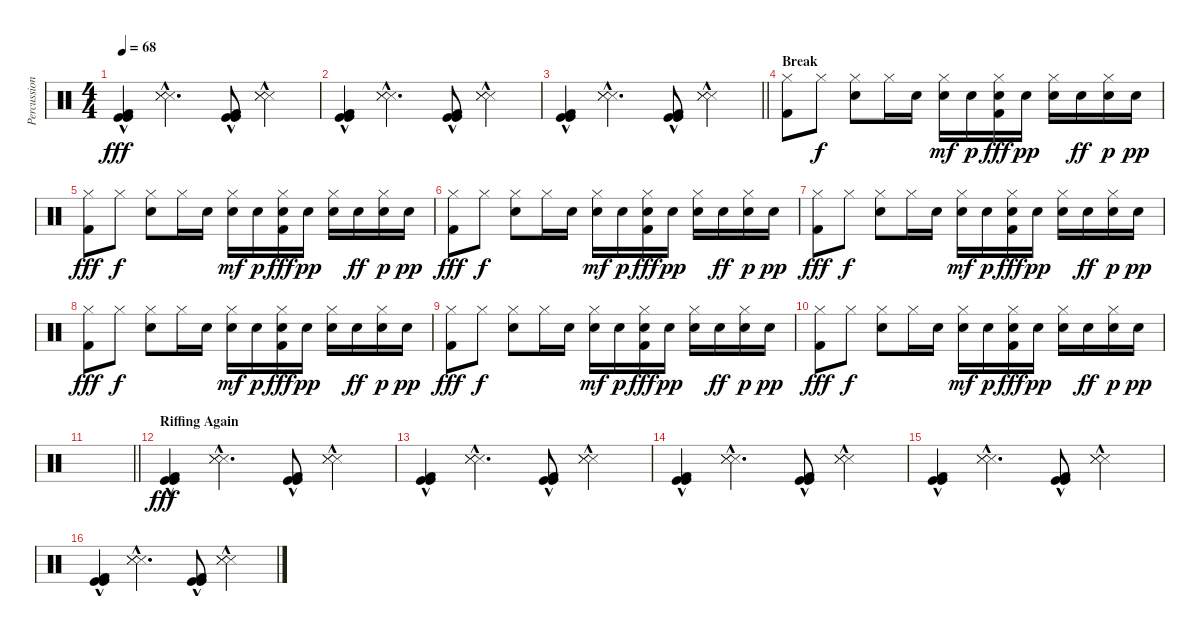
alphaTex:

\track ("Percussion (Drums)" "Percussion") {instrument percussion}
\staff {score}
\articulation defaults
\ts (4 4)
\tempo 68
\clef neutral
\ks c
("Kick (hit)"{hac} "Kick (hit) 2"{hac} "Kick (hit)"{hac}).4{dy fff} ("Snare (side stick) 3"{hac} "Snare (side stick) 3"{hac} "Snare (side stick) 3"{hac}).4{d} ("Kick (hit)"{hac} "Kick (hit) 2"{hac} "Kick (hit)"{hac}).8 ("Snare (side stick) 3"{hac} "Snare (side stick) 3"{hac} "Snare (side stick) 3"{hac}).4 |
("Kick (hit)"{hac} "Kick (hit) 2"{hac} "Kick (hit)"{hac}).4 ("Snare (side stick) 3"{hac} "Snare (side stick) 3"{hac} "Snare (side stick) 3"{hac}).4{d} ("Kick (hit)"{hac} "Kick (hit) 2"{hac} "Kick (hit)"{hac}).8 ("Snare (side stick) 3"{hac} "Snare (side stick) 3"{hac} "Snare (side stick) 3"{hac}).4 |
\barLineRight lightlight
("Kick (hit)"{hac} "Kick (hit) 2"{hac} "Kick (hit)"{hac}).4 ("Snare (side stick) 3"{hac} "Snare (side stick) 3"{hac} "Snare (side stick) 3"{hac}).4{d} ("Kick (hit)"{hac} "Kick (hit) 2"{hac} "Kick (hit)"{hac}).8 ("Snare (side stick) 3"{hac} "Snare (side stick) 3"{hac} "Snare (side stick) 3"{hac}).4 |
\section ("" "Break")
("Hi-Hat (closed)" "Kick (hit) 2").8 "Hi-Hat (closed)".8{dy f} ("Hi-Hat (closed)" "Electric Snare (hit)").8 "Hi-Hat (closed)".16 "Electric Snare (hit)".16 ("Hi-Hat (closed)" "Electric Snare (hit)").16{dy mf} "Electric Snare (hit)".16{dy p} ("Hi-Hat (closed)" "Electric Snare (hit)" "Kick (hit) 2").16{dy fff} "Electric Snare (hit)".16{dy pp} ("Hi-Hat (closed)" "Electric Snare (hit)").16 "Electric Snare (hit)".16{dy ff} ("Hi-Hat (closed)" "Electric Snare (hit)").16{dy p} "Electric Snare (hit)".16{dy pp} |
("Hi-Hat (closed)" "Kick (hit) 2").8{dy fff} "Hi-Hat (closed)".8{dy f} ("Hi-Hat (closed)" "Electric Snare (hit)").8 "Hi-Hat (closed)".16 "Electric Snare (hit)".16 ("Hi-Hat (closed)" "Electric Snare (hit)").16{dy mf} "Electric Snare (hit)".16{dy p} ("Hi-Hat (closed)" "Electric Snare (hit)" "Kick (hit) 2").16{dy fff} "Electric Snare (hit)".16{dy pp} ("Hi-Hat (closed)" "Electric Snare (hit)").16 "Electric Snare (hit)".16{dy ff} ("Hi-Hat (closed)" "Electric Snare (hit)").16{dy p} "Electric Snare (hit)".16{dy pp} |
("Hi-Hat (closed)" "Kick (hit) 2").8{dy fff} "Hi-Hat (closed)".8{dy f} ("Hi-Hat (closed)" "Electric Snare (hit)").8 "Hi-Hat (closed)".16 "Electric Snare (hit)".16 ("Hi-Hat (closed)" "Electric Snare (hit)").16{dy mf} "Electric Snare (hit)".16{dy p} ("Hi-Hat (closed)" "Electric Snare (hit)" "Kick (hit) 2").16{dy fff} "Electric Snare (hit)".16{dy pp} ("Hi-Hat (closed)" "Electric Snare (hit)").16 "Electric Snare (hit)".16{dy ff} ("Hi-Hat (closed)" "Electric Snare (hit)").16{dy p} "Electric Snare (hit)".16{dy pp} |
("Hi-Hat (closed)" "Kick (hit) 2").8{dy fff} "Hi-Hat (closed)".8{dy f} ("Hi-Hat (closed)" "Electric Snare (hit)").8 "Hi-Hat (closed)".16 "Electric Snare (hit)".16 ("Hi-Hat (closed)" "Electric Snare (hit)").16{dy mf} "Electric Snare (hit)".16{dy p} ("Hi-Hat (closed)" "Electric Snare (hit)" "Kick (hit) 2").16{dy fff} "Electric Snare (hit)".16{dy pp} ("Hi-Hat (closed)" "Electric Snare (hit)").16 "Electric Snare (hit)".16{dy ff} ("Hi-Hat (closed)" "Electric Snare (hit)").16{dy p} "Electric Snare (hit)".16{dy pp} |
("Hi-Hat (closed)" "Kick (hit) 2").8{dy fff} "Hi-Hat (closed)".8{dy f} ("Hi-Hat (closed)" "Electric Snare (hit)").8 "Hi-Hat (closed)".16 "Electric Snare (hit)".16 ("Hi-Hat (closed)" "Electric Snare (hit)").16{dy mf} "Electric Snare (hit)".16{dy p} ("Hi-Hat (closed)" "Electric Snare (hit)" "Kick (hit) 2").16{dy fff} "Electric Snare (hit)".16{dy pp} ("Hi-Hat (closed)" "Electric Snare (hit)").16 "Electric Snare (hit)".16{dy ff} ("Hi-Hat (closed)" "Electric Snare (hit)").16{dy p} "Electric Snare (hit)".16{dy pp} |
("Hi-Hat (closed)" "Kick (hit) 2").8{dy fff} "Hi-Hat (closed)".8{dy f} ("Hi-Hat (closed)" "Electric Snare (hit)").8 "Hi-Hat (closed)".16 "Electric Snare (hit)".16 ("Hi-Hat (closed)" "Electric Snare (hit)").16{dy mf} "Electric Snare (hit)".16{dy p} ("Hi-Hat (closed)" "Electric Snare (hit)" "Kick (hit) 2").16{dy fff} "Electric Snare (hit)".16{dy pp} ("Hi-Hat (closed)" "Electric Snare (hit)").16 "Electric Snare (hit)".16{dy ff} ("Hi-Hat (closed)" "Electric Snare (hit)").16{dy p} "Electric Snare (hit)".16{dy pp} |
("Hi-Hat (closed)" "Kick (hit) 2").8{dy fff} "Hi-Hat (closed)".8{dy f} ("Hi-Hat (closed)" "Electric Snare (hit)").8 "Hi-Hat (closed)".16 "Electric Snare (hit)".16 ("Hi-Hat (closed)" "Electric Snare (hit)").16{dy mf} "Electric Snare (hit)".16{dy p} ("Hi-Hat (closed)" "Electric Snare (hit)" "Kick (hit) 2").16{dy fff} "Electric Snare (hit)".16{dy pp} ("Hi-Hat (closed)" "Electric Snare (hit)").16 "Electric Snare (hit)".16{dy ff} ("Hi-Hat (closed)" "Electric Snare (hit)").16{dy p} "Electric Snare (hit)".16{dy pp} |
\barLineRight lightlight
|
\section ("" "Riffing Again")
("Kick (hit)"{hac} "Kick (hit) 2"{hac} "Kick (hit)"{hac}).4{dy fff} ("Snare (side stick) 3"{hac} "Snare (side stick) 3"{hac} "Snare (side stick) 3"{hac}).4{d} ("Kick (hit)"{hac} "Kick (hit) 2"{hac} "Kick (hit)"{hac}).8 ("Snare (side stick) 3"{hac} "Snare (side stick) 3"{hac} "Snare (side stick) 3"{hac}).4 |
("Kick (hit)"{hac} "Kick (hit) 2"{hac} "Kick (hit)"{hac}).4 ("Snare (side stick) 3"{hac} "Snare (side stick) 3"{hac} "Snare (side stick) 3"{hac}).4{d} ("Kick (hit)"{hac} "Kick (hit) 2"{hac} "Kick (hit)"{hac}).8 ("Snare (side stick) 3"{hac} "Snare (side stick) 3"{hac} "Snare (side stick) 3"{hac}).4 |
("Kick (hit)"{hac} "Kick (hit) 2"{hac} "Kick (hit)"{hac}).4 ("Snare (side stick) 3"{hac} "Snare (side stick) 3"{hac} "Snare (side stick) 3"{hac}).4{d} ("Kick (hit)"{hac} "Kick (hit) 2"{hac} "Kick (hit)"{hac}).8 ("Snare (side stick) 3"{hac} "Snare (side stick) 3"{hac} "Snare (side stick) 3"{hac}).4 |
("Kick (hit)"{hac} "Kick (hit) 2"{hac} "Kick (hit)"{hac}).4 ("Snare (side stick) 3"{hac} "Snare (side stick) 3"{hac} "Snare (side stick) 3"{hac}).4{d} ("Kick (hit)"{hac} "Kick (hit) 2"{hac} "Kick (hit)"{hac}).8 ("Snare (side stick) 3"{hac} "Snare (side stick) 3"{hac} "Snare (side stick) 3"{hac}).4 |
("Kick (hit)"{hac} "Kick (hit) 2"{hac} "Kick (hit)"{hac}).4 ("Snare (side stick) 3"{hac} "Snare (side stick) 3"{hac} "Snare (side stick) 3"{hac}).4{d} ("Kick (hit)"{hac} "Kick (hit) 2"{hac} "Kick (hit)"{hac}).8 ("Snare (side stick) 3"{hac} "Snare (side stick) 3"{hac} "Snare (side stick) 3"{hac}).4
